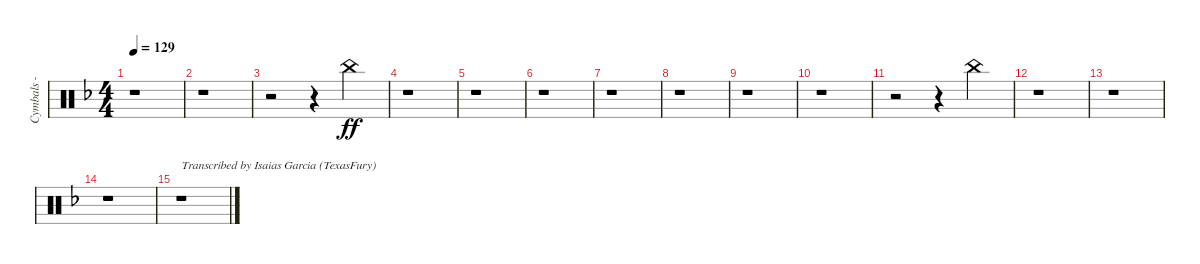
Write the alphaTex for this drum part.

\track ("Cymbals - china" "Cymbals - ") {instrument percussion}
\staff {score}
\articulation defaults
\ts (4 4)
\tempo 129
\clef neutral
\ks dminor
r.1{dy ff} |
r.1 |
r.2 r.4{beam merge} "China (hit)".4 |
r.1 |
r.1 |
r.1 |
r.1 |
r.1 |
r.1 |
r.1 |
r.2 r.4 "China (hit)".4 |
r.1 |
r.1 |
r.1 |
r.1{txt "Transcribed by Isaias Garcia (TexasFury)"}
